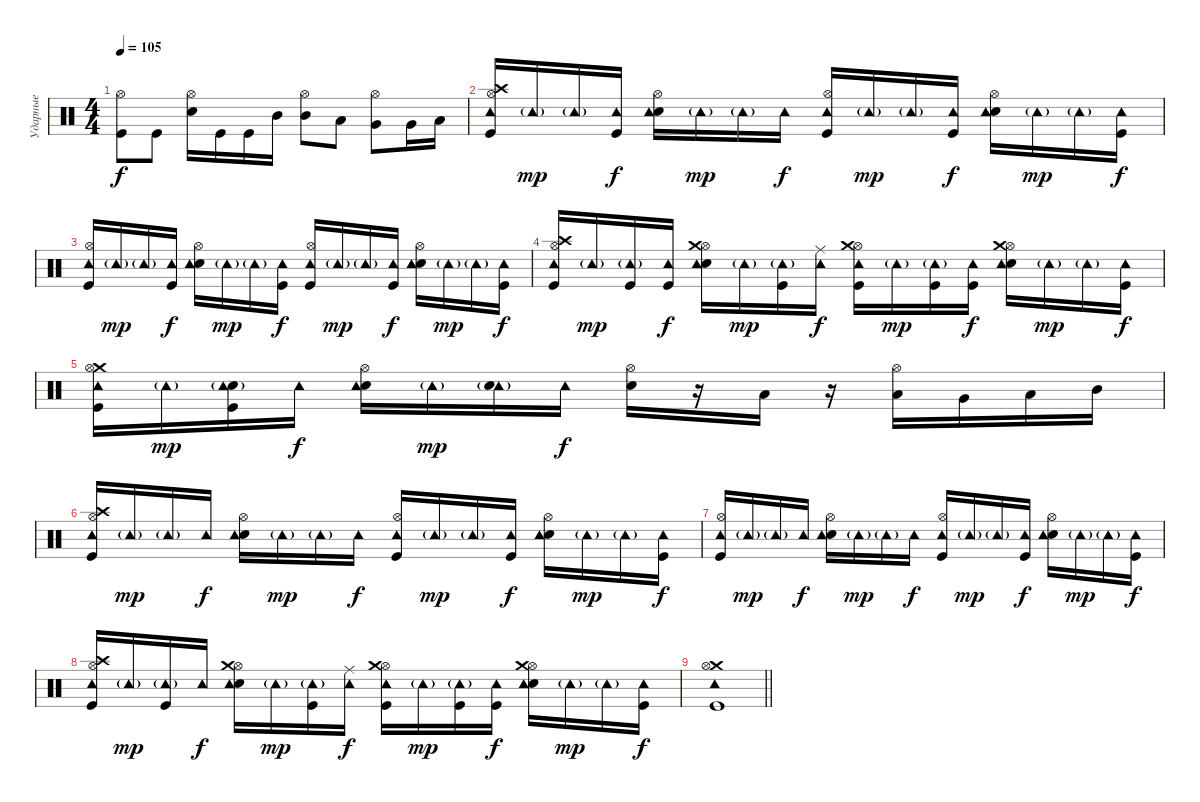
\track ("Ударные" "Ударные") {instrument percussion}
\staff {score}
\articulation defaults
\ts (4 4)
\tempo 105
\clef neutral
\ks c
("Kick (hit)" "Hi-Hat (open)").8{dy f} "Kick (hit)".8 ("Electric Snare (hit)" "Hi-Hat (open)").16 "Kick (hit)".16 "Kick (hit)".16 "Mid Tom (hit)".16 ("Mid Tom (hit)" "Hi-Hat (open)").8 "Low Tom (hit)".8 ("Very Low Tom (hit)" "Hi-Hat (open)").8 "Very Low Tom (hit)".16 "Low Floor Tom (hit)".16 |
("Kick (hit)" "Crash high (hit)" "Hi-Hat (open)" "Tambourine (hit)").16 "Tambourine (hit)"{g}.16{dy mp} "Tambourine (hit)"{g}.16 ("Kick (hit)" "Tambourine (hit)").16{dy f} ("Electric Snare (hit)" "Hi-Hat (open)" "Tambourine (hit)").16 "Tambourine (hit)"{g}.16{dy mp} "Tambourine (hit)"{g}.16 "Tambourine (hit)".16{dy f} ("Kick (hit)" "Hi-Hat (open)" "Tambourine (hit)").16 "Tambourine (hit)"{g}.16{dy mp} "Tambourine (hit)"{g}.16 ("Kick (hit)" "Tambourine (hit)").16{dy f} ("Electric Snare (hit)" "Hi-Hat (open)" "Tambourine (hit)").16 "Tambourine (hit)"{g}.16{dy mp} "Tambourine (hit)"{g}.16 ("Kick (hit)" "Tambourine (hit)").16{dy f} |
("Kick (hit)" "Hi-Hat (open)" "Tambourine (hit)").16 "Tambourine (hit)"{g}.16{dy mp} "Tambourine (hit)"{g}.16 ("Kick (hit)" "Tambourine (hit)").16{dy f} ("Electric Snare (hit)" "Hi-Hat (open)" "Tambourine (hit)").16 "Tambourine (hit)"{g}.16{dy mp} "Tambourine (hit)"{g}.16 ("Kick (hit)" "Tambourine (hit)").16{dy f} ("Kick (hit)" "Hi-Hat (open)" "Tambourine (hit)").16 "Tambourine (hit)"{g}.16{dy mp} "Tambourine (hit)"{g}.16 ("Kick (hit)" "Tambourine (hit)").16{dy f} ("Electric Snare (hit)" "Hi-Hat (open)" "Tambourine (hit)").16 "Tambourine (hit)"{g}.16{dy mp} "Tambourine (hit)"{g}.16 ("Kick (hit)" "Tambourine (hit)").16{dy f} |
("Kick (hit)" "Crash high (hit)" "Hi-Hat (open)" "Tambourine (hit)").16 "Tambourine (hit)"{g}.16{dy mp} ("Kick (hit)" "Tambourine (hit)"{g}).16 ("Kick (hit)" "Tambourine (hit)").16{dy f} ("Electric Snare (hit)" "Hi-Hat (open)" "Crash medium (hit)" "Tambourine (hit)").16 "Tambourine (hit)"{g}.16{dy mp} ("Kick (hit)" "Tambourine (hit)"{g}).16 ("Ride (middle)" "Tambourine (hit)").16{dy f} ("Kick (hit)" "Hi-Hat (open)" "Crash medium (hit)" "Tambourine (hit)").16 "Tambourine (hit)"{g}.16{dy mp} ("Kick (hit)" "Tambourine (hit)"{g}).16 ("Kick (hit)" "Tambourine (hit)").16{dy f} ("Electric Snare (hit)" "Hi-Hat (open)" "Crash medium (hit)" "Tambourine (hit)").16 "Tambourine (hit)"{g}.16{dy mp} "Tambourine (hit)"{g}.16 ("Kick (hit)" "Tambourine (hit)").16{dy f} |
("Kick (hit)" "Crash medium (hit)" "Hi-Hat (open)" "Tambourine (hit)").16 "Tambourine (hit)"{g}.16{dy mp} ("Kick (hit)" "Electric Snare (hit)" "Tambourine (hit)"{g}).16 "Tambourine (hit)".16{dy f} ("Electric Snare (hit)" "Hi-Hat (open)" "Tambourine (hit)").16 "Tambourine (hit)"{g}.16{dy mp} ("Tambourine (hit)"{g} "Electric Snare (hit)").16 "Tambourine (hit)".16{dy f} ("Electric Snare (hit)" "Hi-Hat (open)").16 r.16 "Low Floor Tom (hit)".16 r.16 ("Low Floor Tom (hit)" "Hi-Hat (open)").16 "Very Low Tom (hit)".16 "Low Tom (hit)".16 "Mid Tom (hit)".16 |
("Kick (hit)" "Crash high (hit)" "Hi-Hat (open)" "Tambourine (hit)").16 "Tambourine (hit)"{g}.16{dy mp} "Tambourine (hit)"{g}.16 "Tambourine (hit)".16{dy f} ("Electric Snare (hit)" "Hi-Hat (open)" "Tambourine (hit)").16 "Tambourine (hit)"{g}.16{dy mp} "Tambourine (hit)"{g}.16 "Tambourine (hit)".16{dy f} ("Kick (hit)" "Hi-Hat (open)" "Tambourine (hit)").16 "Tambourine (hit)"{g}.16{dy mp} "Tambourine (hit)"{g}.16 ("Kick (hit)" "Tambourine (hit)").16{dy f} ("Electric Snare (hit)" "Hi-Hat (open)" "Tambourine (hit)").16 "Tambourine (hit)"{g}.16{dy mp} "Tambourine (hit)"{g}.16 ("Kick (hit)" "Tambourine (hit)").16{dy f} |
("Kick (hit)" "Hi-Hat (open)" "Tambourine (hit)").16 "Tambourine (hit)"{g}.16{dy mp} "Tambourine (hit)"{g}.16 "Tambourine (hit)".16{dy f} ("Electric Snare (hit)" "Hi-Hat (open)" "Tambourine (hit)").16 "Tambourine (hit)"{g}.16{dy mp} "Tambourine (hit)"{g}.16 "Tambourine (hit)".16{dy f} ("Kick (hit)" "Hi-Hat (open)" "Tambourine (hit)").16 "Tambourine (hit)"{g}.16{dy mp} "Tambourine (hit)"{g}.16 ("Kick (hit)" "Tambourine (hit)").16{dy f} ("Electric Snare (hit)" "Hi-Hat (open)" "Tambourine (hit)").16 "Tambourine (hit)"{g}.16{dy mp} "Tambourine (hit)"{g}.16 ("Kick (hit)" "Tambourine (hit)").16{dy f} |
("Kick (hit)" "Crash high (hit)" "Hi-Hat (open)" "Tambourine (hit)").16 "Tambourine (hit)"{g}.16{dy mp} ("Kick (hit)" "Tambourine (hit)"{g}).16 "Tambourine (hit)".16{dy f} ("Electric Snare (hit)" "Hi-Hat (open)" "Crash medium (hit)" "Tambourine (hit)").16 "Tambourine (hit)"{g}.16{dy mp} ("Kick (hit)" "Tambourine (hit)"{g}).16 ("Ride (middle)" "Tambourine (hit)").16{dy f} ("Kick (hit)" "Hi-Hat (open)" "Crash medium (hit)" "Tambourine (hit)").16 "Tambourine (hit)"{g}.16{dy mp} ("Kick (hit)" "Tambourine (hit)"{g}).16 ("Kick (hit)" "Tambourine (hit)").16{dy f} ("Electric Snare (hit)" "Hi-Hat (open)" "Crash medium (hit)" "Tambourine (hit)").16 "Tambourine (hit)"{g}.16{dy mp} "Tambourine (hit)"{g}.16 ("Kick (hit)" "Tambourine (hit)").16{dy f} |
\barLineRight lightlight
("Kick (hit)" "Crash medium (hit)" "Hi-Hat (open)" "Tambourine (hit)").1
